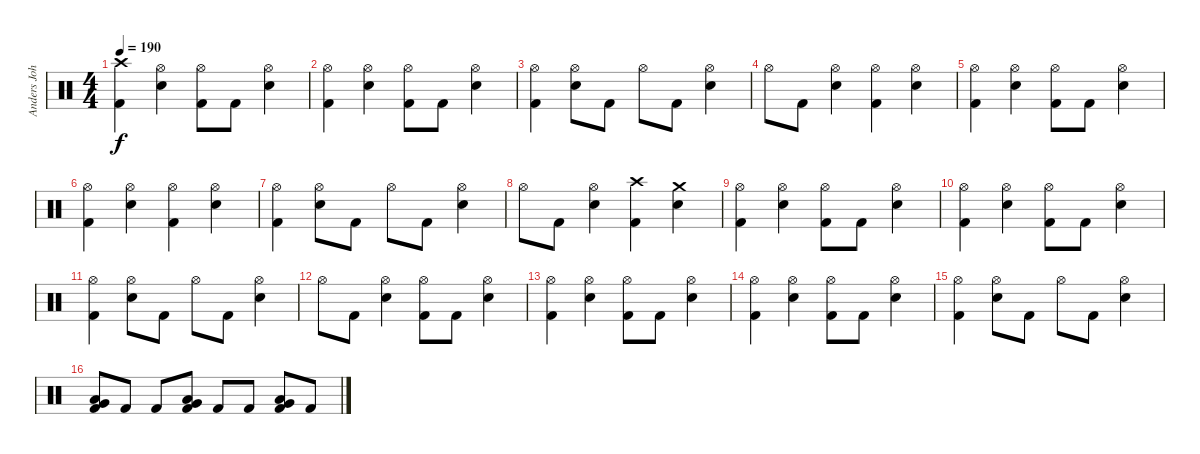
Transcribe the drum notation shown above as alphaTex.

\track ("Anders Johansson Drums" "Anders Joh") {instrument percussion}
\staff {score}
\articulation defaults
\ts (4 4)
\tempo 190
\clef neutral
\ks c
("Crash high (hit)" "Kick (hit) 2").4{dy f} ("Hi-Hat (open)" "Snare (hit) 2").4 ("Hi-Hat (open)" "Kick (hit) 2").8 "Kick (hit) 2".8 ("Hi-Hat (open)" "Snare (hit) 2").4 |
("Hi-Hat (open)" "Kick (hit) 2").4 ("Hi-Hat (open)" "Snare (hit) 2").4 ("Hi-Hat (open)" "Kick (hit) 2").8 "Kick (hit) 2".8 ("Hi-Hat (open)" "Snare (hit) 2").4 |
("Hi-Hat (open)" "Kick (hit) 2").4 ("Hi-Hat (open)" "Snare (hit) 2").8 "Kick (hit) 2".8 "Hi-Hat (open)".8 "Kick (hit) 2".8 ("Hi-Hat (open)" "Snare (hit) 2").4 |
"Hi-Hat (open)".8 "Kick (hit) 2".8 ("Hi-Hat (open)" "Snare (hit) 2").4 ("Hi-Hat (open)" "Kick (hit) 2").4 ("Hi-Hat (open)" "Snare (hit) 2").4 |
("Hi-Hat (open)" "Kick (hit) 2").4 ("Hi-Hat (open)" "Snare (hit) 2").4 ("Hi-Hat (open)" "Kick (hit) 2").8 "Kick (hit) 2".8 ("Hi-Hat (open)" "Snare (hit) 2").4 |
("Hi-Hat (open)" "Kick (hit) 2").4 ("Hi-Hat (open)" "Snare (hit) 2").4 ("Hi-Hat (open)" "Kick (hit) 2").4 ("Hi-Hat (open)" "Snare (hit) 2").4 |
("Hi-Hat (open)" "Kick (hit) 2").4 ("Hi-Hat (open)" "Snare (hit) 2").8 "Kick (hit) 2".8 "Hi-Hat (open)".8 "Kick (hit) 2".8 ("Hi-Hat (open)" "Snare (hit) 2").4 |
"Hi-Hat (open)".8 "Kick (hit) 2".8 ("Hi-Hat (open)" "Snare (hit) 2").4 ("Crash high (hit)" "Kick (hit) 2").4 ("Crash medium (hit)" "Snare (hit) 2").4 |
("Hi-Hat (open)" "Kick (hit) 2").4 ("Hi-Hat (open)" "Snare (hit) 2").4 ("Hi-Hat (open)" "Kick (hit) 2").8 "Kick (hit) 2".8 ("Hi-Hat (open)" "Snare (hit) 2").4 |
("Hi-Hat (open)" "Kick (hit) 2").4 ("Hi-Hat (open)" "Snare (hit) 2").4 ("Hi-Hat (open)" "Kick (hit) 2").8 "Kick (hit) 2".8 ("Hi-Hat (open)" "Snare (hit) 2").4 |
("Hi-Hat (open)" "Kick (hit) 2").4 ("Hi-Hat (open)" "Snare (hit) 2").8 "Kick (hit) 2".8 "Hi-Hat (open)".8 "Kick (hit) 2".8 ("Hi-Hat (open)" "Snare (hit) 2").4 |
"Hi-Hat (open)".8 "Kick (hit) 2".8 ("Hi-Hat (open)" "Snare (hit) 2").4 ("Hi-Hat (open)" "Kick (hit) 2").8 "Kick (hit) 2".8 ("Hi-Hat (open)" "Snare (hit) 2").4 |
("Hi-Hat (open)" "Kick (hit) 2").4 ("Hi-Hat (open)" "Snare (hit) 2").4 ("Hi-Hat (open)" "Kick (hit) 2").8 "Kick (hit) 2".8 ("Hi-Hat (open)" "Snare (hit) 2").4 |
("Hi-Hat (open)" "Kick (hit) 2").4 ("Hi-Hat (open)" "Snare (hit) 2").4 ("Hi-Hat (open)" "Kick (hit) 2").8 "Kick (hit) 2".8 ("Hi-Hat (open)" "Snare (hit) 2").4 |
("Hi-Hat (open)" "Kick (hit) 2").4 ("Hi-Hat (open)" "Snare (hit) 2").8 "Kick (hit) 2".8 "Hi-Hat (open)".8 "Kick (hit) 2".8 ("Hi-Hat (open)" "Snare (hit) 2").4 |
("Low Tom (hit)" "Very Low Tom (hit)" "Kick (hit) 2").8 "Kick (hit) 2".8 "Kick (hit) 2".8 ("Low Tom (hit)" "Very Low Tom (hit)" "Kick (hit) 2").8 "Kick (hit) 2".8 "Kick (hit) 2".8 ("Low Tom (hit)" "Very Low Tom (hit)" "Kick (hit) 2").8 "Kick (hit) 2".8
